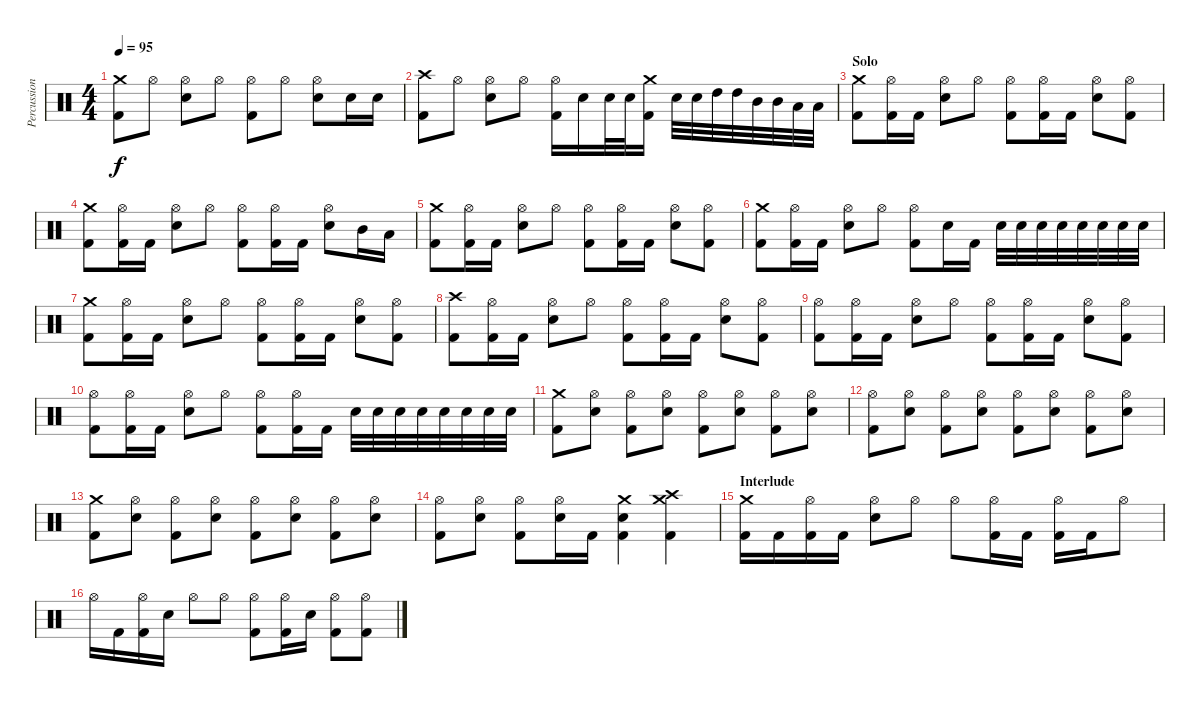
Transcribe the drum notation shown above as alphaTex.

\track ("Percussions" "Percussion") {instrument percussion}
\staff {score}
\articulation defaults
\ts (4 4)
\tempo 95
\clef neutral
\ks c
("Crash medium (hit)" "Kick (hit) 2").8{dy f} "Hi-Hat (open)".8 ("Hi-Hat (open)" "Electric Snare (hit)").8 "Hi-Hat (open)".8 ("Hi-Hat (open)" "Kick (hit) 2").8 "Hi-Hat (open)".8 ("Hi-Hat (open)" "Electric Snare (hit)").8 "Electric Snare (hit)".16 "Electric Snare (hit)".16 |
("Crash high (hit)" "Kick (hit) 2").8 "Hi-Hat (open)".8 ("Hi-Hat (open)" "Electric Snare (hit)").8 "Hi-Hat (open)".8 ("Hi-Hat (open)" "Kick (hit) 2").16 "Electric Snare (hit)".16 "Electric Snare (hit)".32 "Electric Snare (hit)".32 ("Crash medium (hit)" "Kick (hit) 2").16 "Electric Snare (hit)".32 "Electric Snare (hit)".32 "High Tom (hit)".32 "High Tom (hit)".32 "Mid Tom (hit)".32 "Mid Tom (hit)".32 "Low Tom (hit)".32 "Low Tom (hit)".32 |
\section ("" "Solo")
("Crash medium (hit)" "Kick (hit) 2").8 ("Hi-Hat (open)" "Kick (hit) 2").16 "Kick (hit) 2".16 ("Hi-Hat (open)" "Electric Snare (hit)").8 "Hi-Hat (open)".8 ("Hi-Hat (open)" "Kick (hit) 2").8 ("Hi-Hat (open)" "Kick (hit) 2").16 "Kick (hit) 2".16 ("Hi-Hat (open)" "Electric Snare (hit)").8 ("Hi-Hat (open)" "Kick (hit) 2").8 |
("Crash medium (hit)" "Kick (hit) 2").8 ("Hi-Hat (open)" "Kick (hit) 2").16 "Kick (hit) 2".16 ("Hi-Hat (open)" "Electric Snare (hit)").8 "Hi-Hat (open)".8 ("Hi-Hat (open)" "Kick (hit) 2").8 ("Hi-Hat (open)" "Kick (hit) 2").16 "Kick (hit) 2".16 ("Hi-Hat (open)" "Electric Snare (hit)").8 "Mid Tom (hit)".16 "Low Tom (hit)".16 |
("Crash medium (hit)" "Kick (hit) 2").8 ("Hi-Hat (open)" "Kick (hit) 2").16 "Kick (hit) 2".16 ("Hi-Hat (open)" "Electric Snare (hit)").8 "Hi-Hat (open)".8 ("Hi-Hat (open)" "Kick (hit) 2").8 ("Hi-Hat (open)" "Kick (hit) 2").16 "Kick (hit) 2".16 ("Hi-Hat (open)" "Electric Snare (hit)").8 ("Hi-Hat (open)" "Kick (hit) 2").8 |
("Crash medium (hit)" "Kick (hit) 2").8 ("Hi-Hat (open)" "Kick (hit) 2").16 "Kick (hit) 2".16 ("Hi-Hat (open)" "Electric Snare (hit)").8 "Hi-Hat (open)".8 ("Hi-Hat (open)" "Kick (hit) 2").8 "Electric Snare (hit)".16 "Kick (hit) 2".16 "Electric Snare (hit)".32 "Electric Snare (hit)".32 "Electric Snare (hit)".32 "Electric Snare (hit)".32 "Electric Snare (hit)".32 "Electric Snare (hit)".32 "Electric Snare (hit)".32 "Electric Snare (hit)".32 |
("Crash medium (hit)" "Kick (hit) 2").8 ("Hi-Hat (open)" "Kick (hit) 2").16 "Kick (hit) 2".16 ("Hi-Hat (open)" "Electric Snare (hit)").8 "Hi-Hat (open)".8 ("Hi-Hat (open)" "Kick (hit) 2").8 ("Hi-Hat (open)" "Kick (hit) 2").16 "Kick (hit) 2".16 ("Hi-Hat (open)" "Electric Snare (hit)").8 ("Hi-Hat (open)" "Kick (hit) 2").8 |
("Crash high (hit)" "Kick (hit) 2").8 ("Hi-Hat (open)" "Kick (hit) 2").16 "Kick (hit) 2".16 ("Hi-Hat (open)" "Electric Snare (hit)").8 "Hi-Hat (open)".8 ("Hi-Hat (open)" "Kick (hit) 2").8 ("Hi-Hat (open)" "Kick (hit) 2").16 "Kick (hit) 2".16 ("Hi-Hat (open)" "Electric Snare (hit)").8 ("Hi-Hat (open)" "Kick (hit) 2").8 |
("Hi-Hat (open)" "Kick (hit) 2").8 ("Hi-Hat (open)" "Kick (hit) 2").16 "Kick (hit) 2".16 ("Hi-Hat (open)" "Electric Snare (hit)").8 "Hi-Hat (open)".8 ("Hi-Hat (open)" "Kick (hit) 2").8 ("Hi-Hat (open)" "Kick (hit) 2").16 "Kick (hit) 2".16 ("Hi-Hat (open)" "Electric Snare (hit)").8 ("Hi-Hat (open)" "Kick (hit) 2").8 |
("Hi-Hat (open)" "Kick (hit) 2").8 ("Hi-Hat (open)" "Kick (hit) 2").16 "Kick (hit) 2".16 ("Hi-Hat (open)" "Electric Snare (hit)").8 "Hi-Hat (open)".8 ("Hi-Hat (open)" "Kick (hit) 2").8 ("Hi-Hat (open)" "Kick (hit) 2").16 "Kick (hit) 2".16 "Electric Snare (hit)".32 "Electric Snare (hit)".32 "Electric Snare (hit)".32 "Electric Snare (hit)".32 "Electric Snare (hit)".32 "Electric Snare (hit)".32 "Electric Snare (hit)".32 "Electric Snare (hit)".32 |
("Crash medium (hit)" "Kick (hit) 2").8 ("Hi-Hat (open)" "Electric Snare (hit)").8 ("Hi-Hat (open)" "Kick (hit) 2").8 ("Hi-Hat (open)" "Electric Snare (hit)").8 ("Hi-Hat (open)" "Kick (hit) 2").8 ("Hi-Hat (open)" "Electric Snare (hit)").8 ("Hi-Hat (open)" "Kick (hit) 2").8 ("Hi-Hat (open)" "Electric Snare (hit)").8 |
("Hi-Hat (open)" "Kick (hit) 2").8 ("Hi-Hat (open)" "Electric Snare (hit)").8 ("Hi-Hat (open)" "Kick (hit) 2").8 ("Hi-Hat (open)" "Electric Snare (hit)").8 ("Hi-Hat (open)" "Kick (hit) 2").8 ("Hi-Hat (open)" "Electric Snare (hit)").8 ("Hi-Hat (open)" "Kick (hit) 2").8 ("Hi-Hat (open)" "Electric Snare (hit)").8 |
("Crash medium (hit)" "Kick (hit) 2").8 ("Hi-Hat (open)" "Electric Snare (hit)").8 ("Hi-Hat (open)" "Kick (hit) 2").8 ("Hi-Hat (open)" "Electric Snare (hit)").8 ("Hi-Hat (open)" "Kick (hit) 2").8 ("Hi-Hat (open)" "Electric Snare (hit)").8 ("Hi-Hat (open)" "Kick (hit) 2").8 ("Hi-Hat (open)" "Electric Snare (hit)").8 |
("Hi-Hat (open)" "Kick (hit) 2").8 ("Hi-Hat (open)" "Electric Snare (hit)").8 ("Hi-Hat (open)" "Kick (hit) 2").8 ("Hi-Hat (open)" "Electric Snare (hit)").16 "Kick (hit) 2".16 ("Crash medium (hit)" "Electric Snare (hit)" "Kick (hit) 2").4 ("Crash medium (hit)" "Crash high (hit)" "Kick (hit) 2").4 |
\section ("" "Interlude")
("Crash medium (hit)" "Kick (hit) 2").16 "Kick (hit) 2".16 ("Hi-Hat (open)" "Kick (hit) 2").16 "Kick (hit) 2".16 ("Hi-Hat (open)" "Electric Snare (hit)").8 "Hi-Hat (open)".8 "Hi-Hat (open)".8 ("Hi-Hat (open)" "Kick (hit) 2").16 "Kick (hit) 2".16 ("Hi-Hat (open)" "Kick (hit) 2").16 "Kick (hit) 2".16 "Hi-Hat (open)".8 |
"Hi-Hat (open)".16 "Kick (hit) 2".16 ("Hi-Hat (open)" "Kick (hit) 2").16 "Electric Snare (hit)".16 "Hi-Hat (open)".8 "Hi-Hat (open)".8 ("Hi-Hat (open)" "Kick (hit) 2").8 ("Hi-Hat (open)" "Kick (hit) 2").16 "Electric Snare (hit)".16 ("Hi-Hat (open)" "Kick (hit) 2").8 ("Hi-Hat (open)" "Kick (hit) 2").8
